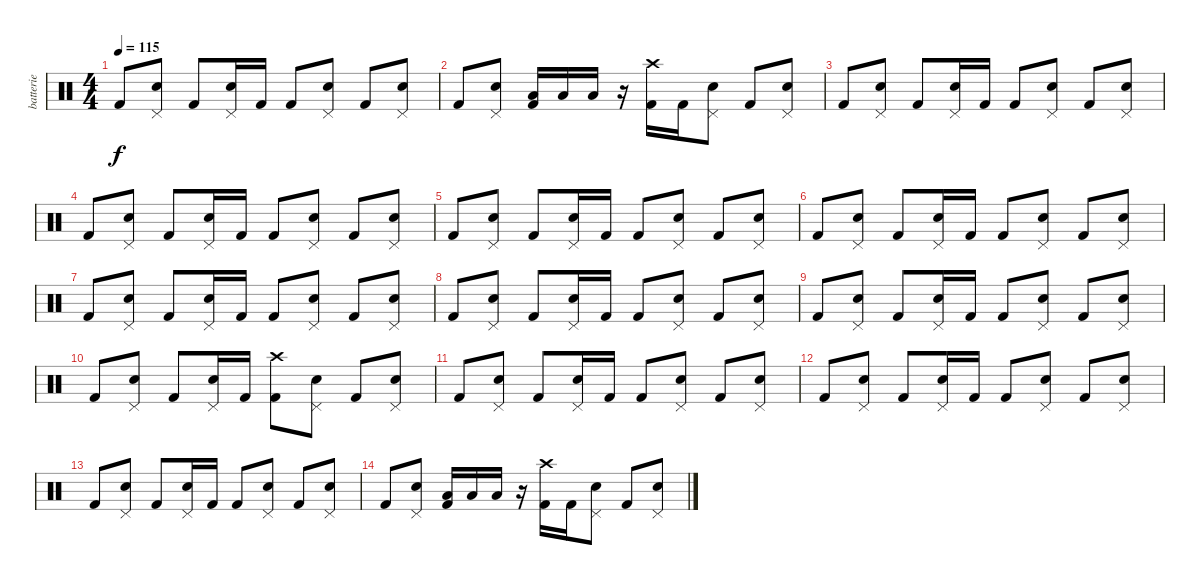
\track ("batterie" "batterie") {instrument percussion}
\staff {score}
\articulation defaults
\ts (4 4)
\tempo 115
\clef neutral
\ks c "Kick (hit) 2".8{dy f}
("Pedal Hi-Hat (hit)" "Electric Snare (hit)").8 "Kick (hit) 2".8 ("Pedal Hi-Hat (hit)" "Electric Snare (hit)").16 "Kick (hit) 2".16 "Kick (hit) 2".8 ("Pedal Hi-Hat (hit)" "Electric Snare (hit)").8 "Kick (hit) 2".8 ("Pedal Hi-Hat (hit)" "Electric Snare (hit)").8 |
"Kick (hit) 2".8 ("Pedal Hi-Hat (hit)" "Electric Snare (hit)").8 ("Low Tom (hit)" "Kick (hit) 2").16 "Low Tom (hit)".16 "Low Tom (hit)".16 r.16 ("Crash high (hit)" "Kick (hit) 2").16 "Kick (hit) 2".16 ("Pedal Hi-Hat (hit)" "Electric Snare (hit)").8 "Kick (hit) 2".8 ("Pedal Hi-Hat (hit)" "Electric Snare (hit)").8 |
"Kick (hit) 2".8 ("Pedal Hi-Hat (hit)" "Electric Snare (hit)").8 "Kick (hit) 2".8 ("Pedal Hi-Hat (hit)" "Electric Snare (hit)").16 "Kick (hit) 2".16 "Kick (hit) 2".8 ("Pedal Hi-Hat (hit)" "Electric Snare (hit)").8 "Kick (hit) 2".8 ("Pedal Hi-Hat (hit)" "Electric Snare (hit)").8 |
"Kick (hit) 2".8 ("Pedal Hi-Hat (hit)" "Electric Snare (hit)").8 "Kick (hit) 2".8 ("Pedal Hi-Hat (hit)" "Electric Snare (hit)").16 "Kick (hit) 2".16 "Kick (hit) 2".8 ("Pedal Hi-Hat (hit)" "Electric Snare (hit)").8 "Kick (hit) 2".8 ("Pedal Hi-Hat (hit)" "Electric Snare (hit)").8 |
"Kick (hit) 2".8 ("Pedal Hi-Hat (hit)" "Electric Snare (hit)").8 "Kick (hit) 2".8 ("Pedal Hi-Hat (hit)" "Electric Snare (hit)").16 "Kick (hit) 2".16 "Kick (hit) 2".8 ("Pedal Hi-Hat (hit)" "Electric Snare (hit)").8 "Kick (hit) 2".8 ("Pedal Hi-Hat (hit)" "Electric Snare (hit)").8 |
"Kick (hit) 2".8 ("Pedal Hi-Hat (hit)" "Electric Snare (hit)").8 "Kick (hit) 2".8 ("Pedal Hi-Hat (hit)" "Electric Snare (hit)").16 "Kick (hit) 2".16 "Kick (hit) 2".8 ("Pedal Hi-Hat (hit)" "Electric Snare (hit)").8 "Kick (hit) 2".8 ("Pedal Hi-Hat (hit)" "Electric Snare (hit)").8 |
"Kick (hit) 2".8 ("Pedal Hi-Hat (hit)" "Electric Snare (hit)").8 "Kick (hit) 2".8 ("Pedal Hi-Hat (hit)" "Electric Snare (hit)").16 "Kick (hit) 2".16 "Kick (hit) 2".8 ("Pedal Hi-Hat (hit)" "Electric Snare (hit)").8 "Kick (hit) 2".8 ("Pedal Hi-Hat (hit)" "Electric Snare (hit)").8 |
"Kick (hit) 2".8 ("Pedal Hi-Hat (hit)" "Electric Snare (hit)").8 "Kick (hit) 2".8 ("Pedal Hi-Hat (hit)" "Electric Snare (hit)").16 "Kick (hit) 2".16 "Kick (hit) 2".8 ("Pedal Hi-Hat (hit)" "Electric Snare (hit)").8 "Kick (hit) 2".8 ("Pedal Hi-Hat (hit)" "Electric Snare (hit)").8 |
"Kick (hit) 2".8 ("Pedal Hi-Hat (hit)" "Electric Snare (hit)").8 "Kick (hit) 2".8 ("Pedal Hi-Hat (hit)" "Electric Snare (hit)").16 "Kick (hit) 2".16 "Kick (hit) 2".8 ("Pedal Hi-Hat (hit)" "Electric Snare (hit)").8 "Kick (hit) 2".8 ("Pedal Hi-Hat (hit)" "Electric Snare (hit)").8 |
"Kick (hit) 2".8 ("Pedal Hi-Hat (hit)" "Electric Snare (hit)").8 "Kick (hit) 2".8 ("Pedal Hi-Hat (hit)" "Electric Snare (hit)").16 "Kick (hit) 2".16 ("Crash high (hit)" "Kick (hit) 2").8 ("Pedal Hi-Hat (hit)" "Electric Snare (hit)").8 "Kick (hit) 2".8 ("Pedal Hi-Hat (hit)" "Electric Snare (hit)").8 |
"Kick (hit) 2".8{volume 8} ("Pedal Hi-Hat (hit)" "Electric Snare (hit)").8 "Kick (hit) 2".8 ("Pedal Hi-Hat (hit)" "Electric Snare (hit)").16 "Kick (hit) 2".16 "Kick (hit) 2".8 ("Pedal Hi-Hat (hit)" "Electric Snare (hit)").8 "Kick (hit) 2".8 ("Pedal Hi-Hat (hit)" "Electric Snare (hit)").8 |
"Kick (hit) 2".8 ("Pedal Hi-Hat (hit)" "Electric Snare (hit)").8 "Kick (hit) 2".8 ("Pedal Hi-Hat (hit)" "Electric Snare (hit)").16 "Kick (hit) 2".16 "Kick (hit) 2".8 ("Pedal Hi-Hat (hit)" "Electric Snare (hit)").8 "Kick (hit) 2".8 ("Pedal Hi-Hat (hit)" "Electric Snare (hit)").8 |
"Kick (hit) 2".8{volume 0} ("Pedal Hi-Hat (hit)" "Electric Snare (hit)").8 "Kick (hit) 2".8 ("Pedal Hi-Hat (hit)" "Electric Snare (hit)").16 "Kick (hit) 2".16 "Kick (hit) 2".8 ("Pedal Hi-Hat (hit)" "Electric Snare (hit)").8 "Kick (hit) 2".8 ("Pedal Hi-Hat (hit)" "Electric Snare (hit)").8 |
"Kick (hit) 2".8 ("Pedal Hi-Hat (hit)" "Electric Snare (hit)").8 ("Low Tom (hit)" "Kick (hit) 2").16 "Low Tom (hit)".16 "Low Tom (hit)".16 r.16 ("Crash high (hit)" "Kick (hit) 2").16 "Kick (hit) 2".16 ("Pedal Hi-Hat (hit)" "Electric Snare (hit)").8 "Kick (hit) 2".8 ("Pedal Hi-Hat (hit)" "Electric Snare (hit)").8
